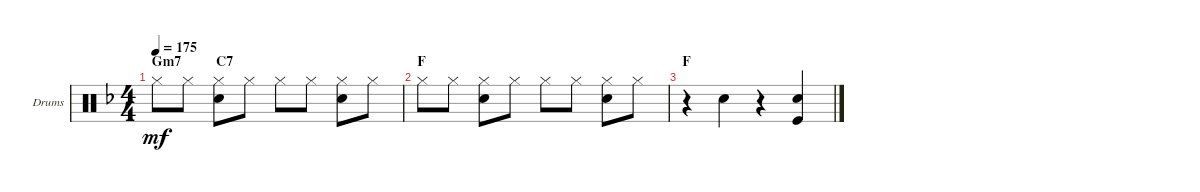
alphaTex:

\bracketExtendMode groupsimilarinstruments
\firstSystemTrackNameOrientation horizontal
\otherSystemsTrackNameOrientation horizontal
\track ("Drumkit" "Drums") {instrument percussion}
\staff {score}
\articulation defaults
\ts (4 4)
\section ("" "Gm7          C7")
\tempo 175
\clef neutral
\ks f "Hi-Hat (closed)".8{dy mf} "Hi-Hat (closed)".8
("Snare (hit) 2" "Hi-Hat (closed)").8 "Hi-Hat (closed)".8 "Hi-Hat (closed)".8 "Hi-Hat (closed)".8 ("Snare (hit) 2" "Hi-Hat (closed)").8 "Hi-Hat (closed)".8 |
\section ("" "F")
"Hi-Hat (closed)".8 "Hi-Hat (closed)".8 ("Snare (hit) 2" "Hi-Hat (closed)").8 "Hi-Hat (closed)".8 "Hi-Hat (closed)".8 "Hi-Hat (closed)".8 ("Snare (hit) 2" "Hi-Hat (closed)").8 "Hi-Hat (closed)".8 |
\section ("" "F")
r.4 "Snare (hit) 2".4 r.4 ("Snare (hit) 2" "Kick (hit)").4
